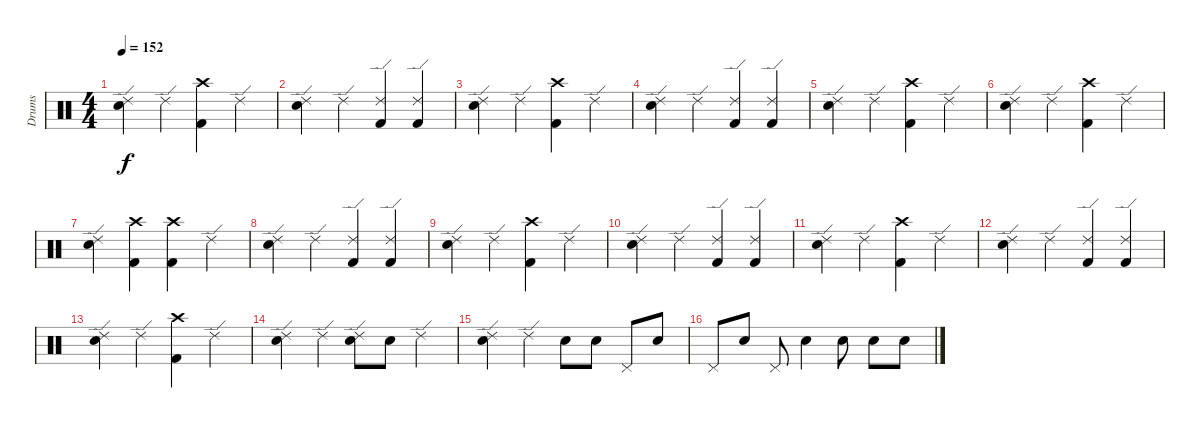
\track ("Drums" "Drums") {instrument percussion}
\staff {score}
\articulation defaults
\ts (4 4)
\tempo 152
\clef neutral
\ks c
("Electric Snare (hit)" "Ride (edge) 2").4{dy f} "Ride (edge) 2".4 ("Kick (hit) 2" "Crash high (hit)").4 "Ride (edge) 2".4 |
("Electric Snare (hit)" "Ride (edge) 2").4 "Ride (edge) 2".4 ("Kick (hit) 2" "Ride (edge) 2").4 ("Kick (hit) 2" "Ride (edge) 2").4 |
("Electric Snare (hit)" "Ride (edge) 2").4 "Ride (edge) 2".4 ("Kick (hit) 2" "Crash high (hit)").4 "Ride (edge) 2".4 |
("Electric Snare (hit)" "Ride (edge) 2").4 "Ride (edge) 2".4 ("Kick (hit) 2" "Ride (edge) 2").4 ("Kick (hit) 2" "Ride (edge) 2").4 |
("Electric Snare (hit)" "Ride (edge) 2").4 "Ride (edge) 2".4 ("Kick (hit) 2" "Crash high (hit)").4 "Ride (edge) 2".4 |
("Electric Snare (hit)" "Ride (edge) 2").4 "Ride (edge) 2".4 ("Kick (hit) 2" "Crash high (hit)").4 "Ride (edge) 2".4 |
("Electric Snare (hit)" "Ride (edge) 2").4 ("Kick (hit) 2" "Crash high (hit)").4 ("Kick (hit) 2" "Crash high (hit)").4 "Ride (edge) 2".4 |
("Electric Snare (hit)" "Ride (edge) 2").4 "Ride (edge) 2".4 ("Kick (hit) 2" "Ride (edge) 2").4 ("Kick (hit) 2" "Ride (edge) 2").4 |
("Electric Snare (hit)" "Ride (edge) 2").4 "Ride (edge) 2".4 ("Kick (hit) 2" "Crash high (hit)").4 "Ride (edge) 2".4 |
("Electric Snare (hit)" "Ride (edge) 2").4 "Ride (edge) 2".4 ("Kick (hit) 2" "Ride (edge) 2").4 ("Kick (hit) 2" "Ride (edge) 2").4 |
("Electric Snare (hit)" "Ride (edge) 2").4 "Ride (edge) 2".4 ("Kick (hit) 2" "Crash high (hit)").4 "Ride (edge) 2".4 |
("Electric Snare (hit)" "Ride (edge) 2").4 "Ride (edge) 2".4 ("Kick (hit) 2" "Ride (edge) 2").4 ("Kick (hit) 2" "Ride (edge) 2").4 |
("Electric Snare (hit)" "Ride (edge) 2").4 "Ride (edge) 2".4 ("Kick (hit) 2" "Crash high (hit)").4 "Ride (edge) 2".4 |
("Electric Snare (hit)" "Ride (edge) 2").4 "Ride (edge) 2".4 ("Electric Snare (hit)" "Ride (edge) 2").8 "Electric Snare (hit)".8 "Ride (edge) 2".4 |
("Electric Snare (hit)" "Ride (edge) 2").4 "Ride (edge) 2".4 "Electric Snare (hit)".8 "Electric Snare (hit)".8 "Pedal Hi-Hat (hit)".8 "Electric Snare (hit)".8 |
"Pedal Hi-Hat (hit)".8 "Electric Snare (hit)".8 "Pedal Hi-Hat (hit)".8 "Electric Snare (hit)".4 "Electric Snare (hit)".8 "Electric Snare (hit)".8 "Electric Snare (hit)".8
